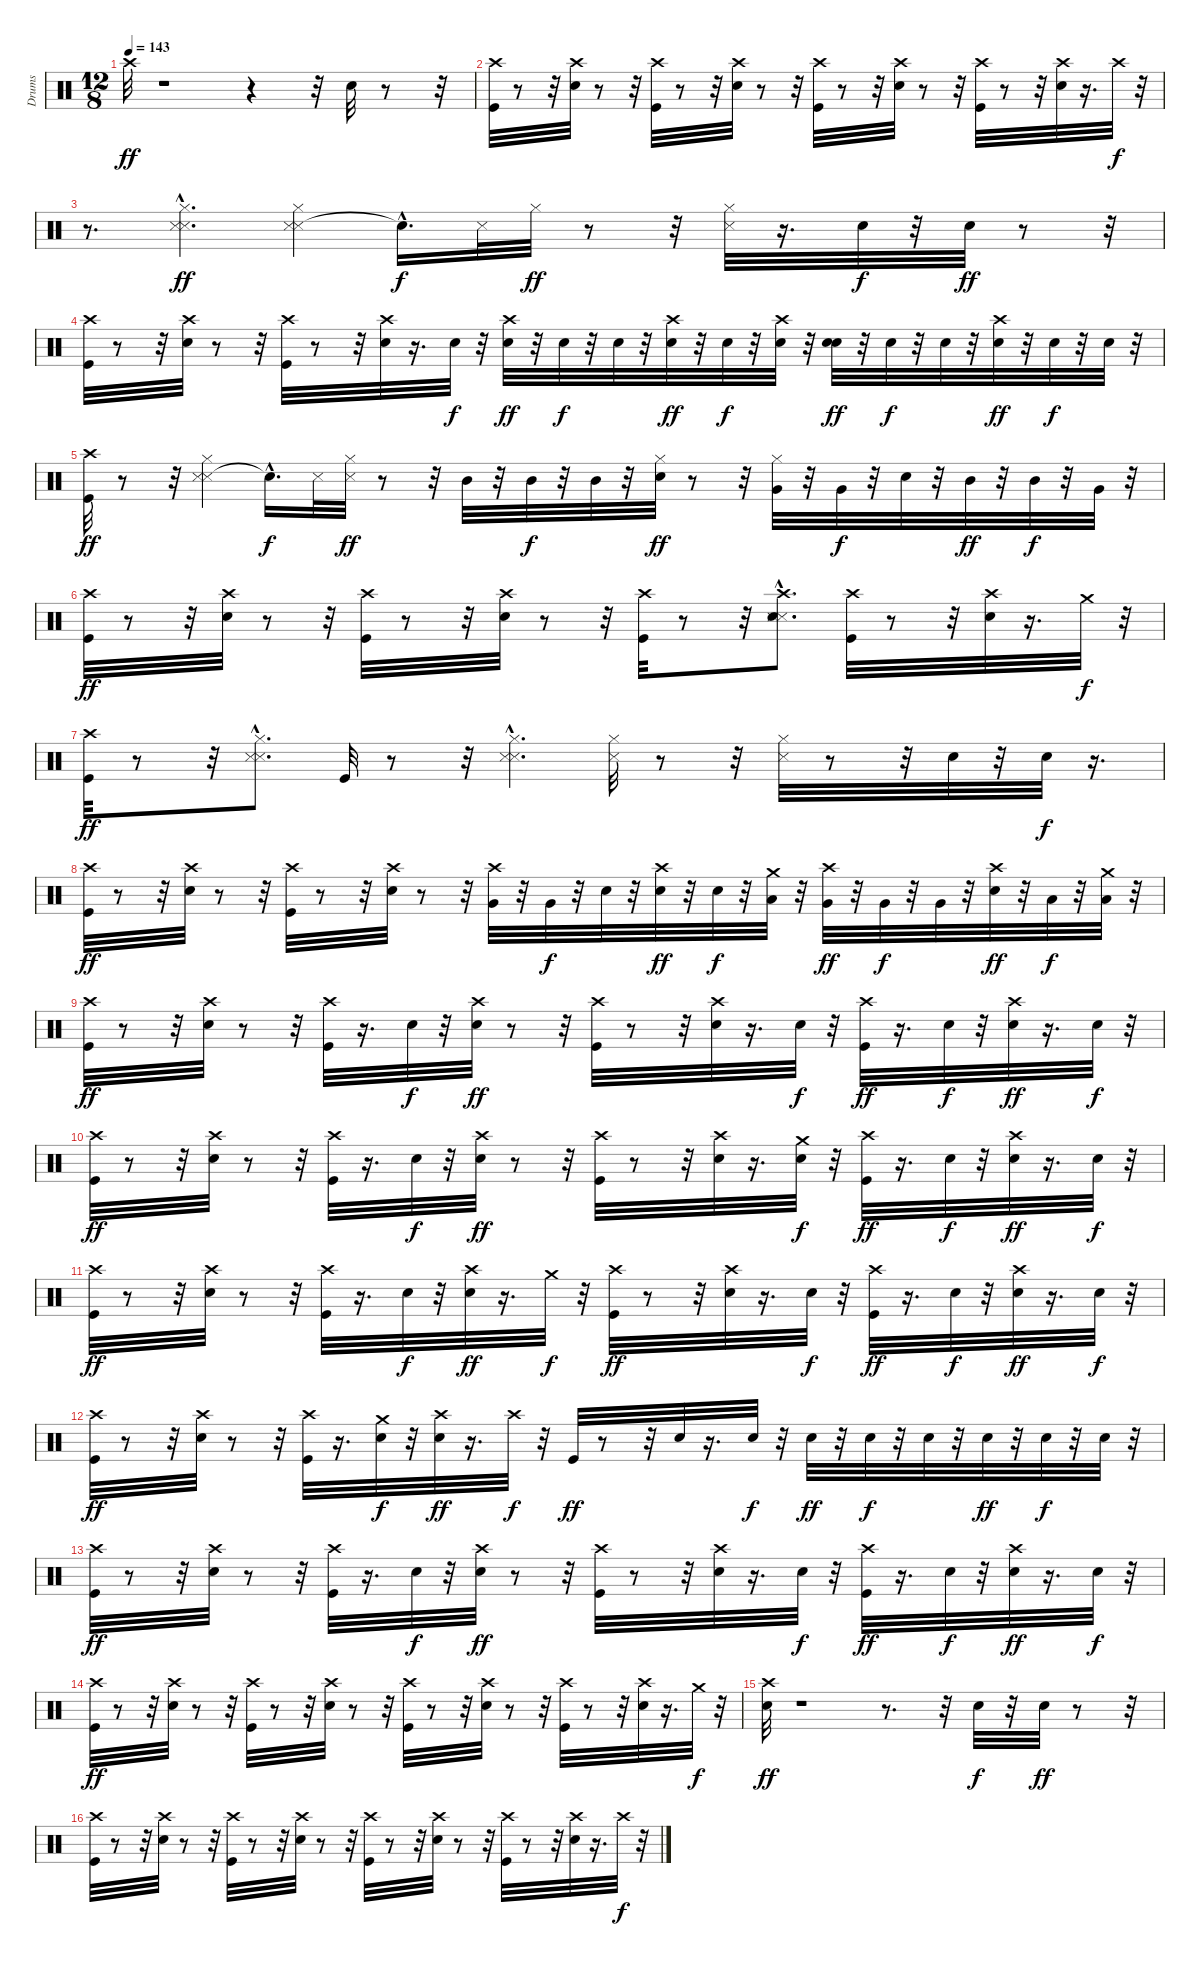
\track ("Drums" "Drums") {instrument percussion}
\staff {score}
\articulation defaults
\ts (12 8)
\tempo 143
\clef neutral
\ks c "Crash high (hit)".32{dy ff}
r.1 r.4 r.32 "Electric Snare (hit)".32 r.8 r.32 |
("Crash high (hit)" "Kick (hit)").32 r.8 r.32 ("Crash high (hit)" "Snare (hit) 2").32 r.8 r.32 ("Crash high (hit)" "Kick (hit)").32 r.8 r.32 ("Crash high (hit)" "Snare (hit) 2").32 r.8 r.32 ("Crash high (hit)" "Kick (hit)").32 r.8 r.32 ("Crash high (hit)" "Snare (hit) 2").32 r.8 r.32 ("Crash high (hit)" "Kick (hit)").32 r.8 r.32 ("Crash high (hit)" "Snare (hit) 2").32 r.16{d} "Crash high (hit)".32{dy f} r.32 |
r.8{d} ("Metronome (hit)"{hac} "Metronome (hit)" "Hi-Hat (closed)").4{d dy ff} ("Metronome (hit)" "Metronome (hit)" "Hi-Hat (closed)").4 "Snare (hit)"{hac t}.16{d dy f} "Metronome (hit)".32 "Hi-Hat (closed)".32{dy ff} r.8 r.32 ("Hi-Hat (closed)" "Metronome (hit)").32 r.16{d} "Snare (hit) 2".32{dy f} r.32 "Snare (hit) 2".32{dy ff} r.8 r.32 |
("Crash high (hit)" "Kick (hit)").32 r.8 r.32 ("Crash high (hit)" "Snare (hit) 2").32 r.8 r.32 ("Crash high (hit)" "Kick (hit)").32 r.8 r.32 ("Crash high (hit)" "Snare (hit) 2").32 r.16{d} "Snare (hit) 2".32{dy f} r.32 ("Electric Snare (hit)" "Crash high (hit)").32{dy ff} r.32 "Snare (hit) 2".32{dy f} r.32 "Snare (hit) 2".32 r.32 ("Snare (hit) 2" "Crash high (hit)").32{dy ff} r.32 "Snare (hit) 2".32{dy f} r.32 ("Snare (hit) 2" "Crash high (hit)").32 r.32 ("Snare (hit) 2" "Electric Snare (hit)").32{dy ff} r.32 "Snare (hit) 2".32{dy f} r.32 "Snare (hit) 2".32 r.32 ("Snare (hit) 2" "Crash high (hit)").32{dy ff} r.32 "Snare (hit) 2".32{dy f} r.32 "Snare (hit) 2".32 r.32 |
("Kick (hit)" "Crash high (hit)").32{dy ff} r.8 r.32 ("Metronome (hit)" "Metronome (hit)" "Hi-Hat (closed)").4 "Snare (hit)"{hac t}.16{d dy f} "Metronome (hit)".32 ("Metronome (hit)" "Hi-Hat (closed)").32{dy ff} r.8 r.32 "Mid Tom (hit)".32 r.32 "Mid Tom (hit)".32{dy f} r.32 "Mid Tom (hit)".32 r.32 ("Hi-Hat (closed)" "Electric Snare (hit)").32{dy ff} r.8 r.32 ("Hi-Hat (closed)" "Very Low Tom (hit)").32 r.32 "Very Low Tom (hit)".32{dy f} r.32 "Electric Snare (hit)".32 r.32 "Mid Tom (hit)".32{dy ff} r.32 "Mid Tom (hit)".32{dy f} r.32 "Very Low Tom (hit)".32 r.32 |
("Crash high (hit)" "Kick (hit)").32{dy ff} r.8 r.32 ("Crash high (hit)" "Snare (hit) 2").32 r.8 r.32 ("Crash high (hit)" "Kick (hit)").32 r.8 r.32 ("Crash high (hit)" "Snare (hit) 2").32 r.8 r.32 ("Crash high (hit)" "Kick (hit)").32 r.8 r.32 ("Metronome (hit)"{hac} "Metronome (hit)" "Crash high (hit)" "Snare (hit) 2").8{d} ("Crash high (hit)" "Kick (hit)").32 r.8 r.32 ("Crash high (hit)" "Snare (hit) 2").32 r.16{d} "Crash medium (hit)".32{dy f} r.32 |
("Kick (hit)" "Crash high (hit)").32{dy ff} r.8 r.32 ("Metronome (hit)"{hac} "Metronome (hit)" "Hi-Hat (closed)").8{d} "Kick (hit)".32 r.8 r.32 ("Metronome (hit)"{hac} "Metronome (hit)" "Hi-Hat (closed)").4{d} ("Metronome (hit)" "Hi-Hat (closed)").32 r.8 r.32 ("Hi-Hat (closed)" "Metronome (hit)").32 r.8 r.32 "Snare (hit) 2".32 r.32 "Snare (hit) 2".32{dy f} r.16{d} |
("Crash high (hit)" "Kick (hit)").32{dy ff} r.8 r.32 ("Crash high (hit)" "Snare (hit) 2").32 r.8 r.32 ("Crash high (hit)" "Kick (hit)").32 r.8 r.32 ("Crash high (hit)" "Snare (hit) 2").32 r.8 r.32 ("Very Low Tom (hit)" "Crash high (hit)").32 r.32 "Very Low Tom (hit)".32{dy f} r.32 "Snare (hit) 2".32 r.32 ("Snare (hit) 2" "Crash high (hit)").32{dy ff} r.32 "Snare (hit) 2".32{dy f} r.32 ("Crash medium (hit)" "Low Tom (hit)").32 r.32 ("Very Low Tom (hit)" "Crash high (hit)").32{dy ff} r.32 "Very Low Tom (hit)".32{dy f} r.32 "Very Low Tom (hit)".32 r.32 ("Crash high (hit)" "Snare (hit) 2").32{dy ff} r.32 "Low Tom (hit)".32{dy f} r.32 ("Crash medium (hit)" "Low Tom (hit)").32 r.32 |
("Crash high (hit)" "Kick (hit)").32{dy ff} r.8 r.32 ("Crash high (hit)" "Snare (hit) 2").32 r.8 r.32 ("Crash high (hit)" "Kick (hit)").32 r.16{d} "Snare (hit) 2".32{dy f} r.32 ("Crash high (hit)" "Snare (hit) 2").32{dy ff} r.8 r.32 ("Crash high (hit)" "Kick (hit)").32 r.8 r.32 ("Crash high (hit)" "Snare (hit) 2").32 r.16{d} "Snare (hit) 2".32{dy f} r.32 ("Crash high (hit)" "Kick (hit)").32{dy ff} r.16{d} "Snare (hit) 2".32{dy f} r.32 ("Crash high (hit)" "Snare (hit) 2").32{dy ff} r.16{d} "Snare (hit) 2".32{dy f} r.32 |
("Crash high (hit)" "Kick (hit)").32{dy ff} r.8 r.32 ("Crash high (hit)" "Snare (hit) 2").32 r.8 r.32 ("Crash high (hit)" "Kick (hit)").32 r.16{d} "Snare (hit) 2".32{dy f} r.32 ("Crash high (hit)" "Snare (hit) 2").32{dy ff} r.8 r.32 ("Crash high (hit)" "Kick (hit)").32 r.8 r.32 ("Crash high (hit)" "Snare (hit) 2").32 r.16{d} ("Crash medium (hit)" "Snare (hit) 2").32{dy f} r.32 ("Crash high (hit)" "Kick (hit)").32{dy ff} r.16{d} "Snare (hit) 2".32{dy f} r.32 ("Crash high (hit)" "Snare (hit) 2").32{dy ff} r.16{d} "Snare (hit) 2".32{dy f} r.32 |
("Crash high (hit)" "Kick (hit)").32{dy ff} r.8 r.32 ("Crash high (hit)" "Snare (hit) 2").32 r.8 r.32 ("Crash high (hit)" "Kick (hit)").32 r.16{d} "Snare (hit) 2".32{dy f} r.32 ("Crash high (hit)" "Snare (hit) 2").32{dy ff} r.16{d} "Crash medium (hit)".32{dy f} r.32 ("Crash high (hit)" "Kick (hit)").32{dy ff} r.8 r.32 ("Crash high (hit)" "Snare (hit) 2").32 r.16{d} "Snare (hit) 2".32{dy f} r.32 ("Crash high (hit)" "Kick (hit)").32{dy ff} r.16{d} "Snare (hit) 2".32{dy f} r.32 ("Crash high (hit)" "Snare (hit) 2").32{dy ff} r.16{d} "Snare (hit) 2".32{dy f} r.32 |
("Crash high (hit)" "Kick (hit)").32{dy ff} r.8 r.32 ("Crash high (hit)" "Snare (hit) 2").32 r.8 r.32 ("Crash high (hit)" "Kick (hit)").32 r.16{d} ("Crash medium (hit)" "Snare (hit) 2").32{dy f} r.32 ("Crash high (hit)" "Snare (hit) 2").32{dy ff} r.16{d} "Crash high (hit)".32{dy f} r.32 "Kick (hit)".32{dy ff} r.8 r.32 "Snare (hit) 2".32 r.16{d} "Electric Snare (hit)".32{dy f} r.32 "Snare (hit) 2".32{dy ff} r.32 "Snare (hit) 2".32{dy f} r.32 "Snare (hit) 2".32 r.32 "Snare (hit) 2".32{dy ff} r.32 "Snare (hit) 2".32{dy f} r.32 "Snare (hit) 2".32 r.32 |
("Crash high (hit)" "Kick (hit)").32{dy ff} r.8 r.32 ("Crash high (hit)" "Snare (hit) 2").32 r.8 r.32 ("Crash high (hit)" "Kick (hit)").32 r.16{d} "Snare (hit) 2".32{dy f} r.32 ("Crash high (hit)" "Snare (hit) 2").32{dy ff} r.8 r.32 ("Crash high (hit)" "Kick (hit)").32 r.8 r.32 ("Crash high (hit)" "Snare (hit) 2").32 r.16{d} "Snare (hit) 2".32{dy f} r.32 ("Crash high (hit)" "Kick (hit)").32{dy ff} r.16{d} "Snare (hit) 2".32{dy f} r.32 ("Crash high (hit)" "Snare (hit) 2").32{dy ff} r.16{d} "Snare (hit) 2".32{dy f} r.32 |
("Crash high (hit)" "Kick (hit)").32{dy ff} r.8 r.32 ("Crash high (hit)" "Snare (hit) 2").32 r.8 r.32 ("Crash high (hit)" "Kick (hit)").32 r.8 r.32 ("Crash high (hit)" "Snare (hit) 2").32 r.8 r.32 ("Crash high (hit)" "Kick (hit)").32 r.8 r.32 ("Crash high (hit)" "Snare (hit) 2").32 r.8 r.32 ("Crash high (hit)" "Kick (hit)").32 r.8 r.32 ("Crash high (hit)" "Snare (hit) 2").32 r.16{d} "Crash medium (hit)".32{dy f} r.32 |
("Snare (hit) 2" "Crash high (hit)").32{dy ff} r.1 r.8{d} r.32 "Snare (hit) 2".32{dy f} r.32 "Electric Snare (hit)".32{dy ff} r.8 r.32 |
("Crash high (hit)" "Kick (hit)").32 r.8 r.32 ("Crash high (hit)" "Snare (hit) 2").32 r.8 r.32 ("Crash high (hit)" "Kick (hit)").32 r.8 r.32 ("Crash high (hit)" "Snare (hit) 2").32 r.8 r.32 ("Crash high (hit)" "Kick (hit)").32 r.8 r.32 ("Crash high (hit)" "Snare (hit) 2").32 r.8 r.32 ("Crash high (hit)" "Kick (hit)").32 r.8 r.32 ("Crash high (hit)" "Snare (hit) 2").32 r.16{d} "Crash high (hit)".32{dy f} r.32
